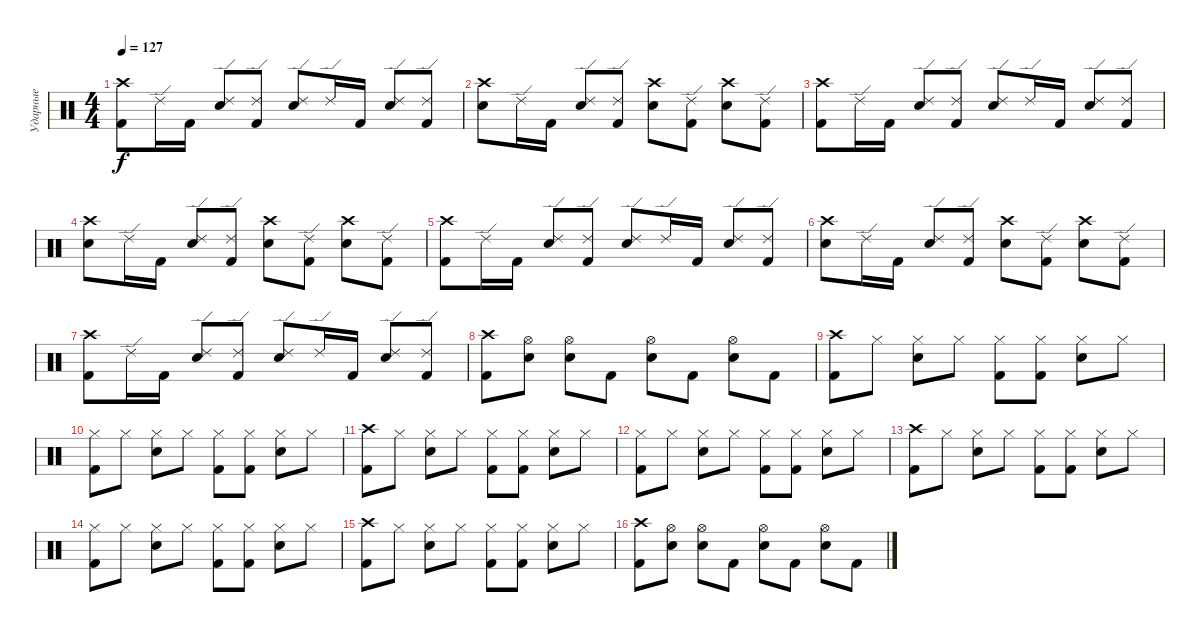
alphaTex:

\track ("Ударные" "Ударные") {instrument percussion}
\staff {score}
\articulation defaults
\ts (4 4)
\tempo 127
\clef neutral
\ks c
("Kick (hit) 2" "Crash high (hit)").8{dy f} "Ride (edge) 2".16 "Kick (hit) 2".16 ("Electric Snare (hit)" "Ride (edge) 2").8 ("Kick (hit) 2" "Ride (edge) 2").8 ("Electric Snare (hit)" "Ride (edge) 2").8 "Ride (edge) 2".16 "Kick (hit) 2".16 ("Electric Snare (hit)" "Ride (edge) 2").8 ("Kick (hit) 2" "Ride (edge) 2").8 |
("Electric Snare (hit)" "Crash high (hit)").8 "Ride (edge) 2".16 "Kick (hit) 2".16 ("Electric Snare (hit)" "Ride (edge) 2").8 ("Kick (hit) 2" "Ride (edge) 2").8 ("Electric Snare (hit)" "Crash high (hit)").8 ("Kick (hit) 2" "Ride (edge) 2").8 ("Electric Snare (hit)" "Crash high (hit)").8 ("Kick (hit) 2" "Ride (edge) 2").8 |
("Kick (hit) 2" "Crash high (hit)").8 "Ride (edge) 2".16 "Kick (hit) 2".16 ("Electric Snare (hit)" "Ride (edge) 2").8 ("Kick (hit) 2" "Ride (edge) 2").8 ("Electric Snare (hit)" "Ride (edge) 2").8 "Ride (edge) 2".16 "Kick (hit) 2".16 ("Electric Snare (hit)" "Ride (edge) 2").8 ("Kick (hit) 2" "Ride (edge) 2").8 |
("Electric Snare (hit)" "Crash high (hit)").8 "Ride (edge) 2".16 "Kick (hit) 2".16 ("Electric Snare (hit)" "Ride (edge) 2").8 ("Kick (hit) 2" "Ride (edge) 2").8 ("Electric Snare (hit)" "Crash high (hit)").8 ("Kick (hit) 2" "Ride (edge) 2").8 ("Electric Snare (hit)" "Crash high (hit)").8 ("Kick (hit) 2" "Ride (edge) 2").8 |
("Kick (hit) 2" "Crash high (hit)").8 "Ride (edge) 2".16 "Kick (hit) 2".16 ("Electric Snare (hit)" "Ride (edge) 2").8 ("Kick (hit) 2" "Ride (edge) 2").8 ("Electric Snare (hit)" "Ride (edge) 2").8 "Ride (edge) 2".16 "Kick (hit) 2".16 ("Electric Snare (hit)" "Ride (edge) 2").8 ("Kick (hit) 2" "Ride (edge) 2").8 |
("Electric Snare (hit)" "Crash high (hit)").8 "Ride (edge) 2".16 "Kick (hit) 2".16 ("Electric Snare (hit)" "Ride (edge) 2").8 ("Kick (hit) 2" "Ride (edge) 2").8 ("Electric Snare (hit)" "Crash high (hit)").8 ("Kick (hit) 2" "Ride (edge) 2").8 ("Electric Snare (hit)" "Crash high (hit)").8 ("Kick (hit) 2" "Ride (edge) 2").8 |
("Kick (hit) 2" "Crash high (hit)").8 "Ride (edge) 2".16 "Kick (hit) 2".16 ("Electric Snare (hit)" "Ride (edge) 2").8 ("Kick (hit) 2" "Ride (edge) 2").8 ("Electric Snare (hit)" "Ride (edge) 2").8 "Ride (edge) 2".16 "Kick (hit) 2".16 ("Electric Snare (hit)" "Ride (edge) 2").8 ("Kick (hit) 2" "Ride (edge) 2").8 |
("Kick (hit) 2" "Crash high (hit)").8 ("Electric Snare (hit)" "Hi-Hat (open)").8 ("Electric Snare (hit)" "Hi-Hat (open)").8 "Kick (hit) 2".8 ("Electric Snare (hit)" "Hi-Hat (open)").8 "Kick (hit) 2".8 ("Electric Snare (hit)" "Hi-Hat (open)").8 "Kick (hit) 2".8 |
("Kick (hit) 2" "Crash high (hit)").8 "Hi-Hat (closed)".8 ("Electric Snare (hit)" "Hi-Hat (closed)").8 "Hi-Hat (closed)".8 ("Kick (hit) 2" "Hi-Hat (closed)").8 ("Kick (hit) 2" "Hi-Hat (closed)").8 ("Electric Snare (hit)" "Hi-Hat (closed)").8 "Hi-Hat (closed)".8 |
("Kick (hit) 2" "Hi-Hat (closed)").8 "Hi-Hat (closed)".8 ("Electric Snare (hit)" "Hi-Hat (closed)").8 "Hi-Hat (closed)".8 ("Kick (hit) 2" "Hi-Hat (closed)").8 ("Kick (hit) 2" "Hi-Hat (closed)").8 ("Electric Snare (hit)" "Hi-Hat (closed)").8 "Hi-Hat (closed)".8 |
("Kick (hit) 2" "Crash high (hit)").8 "Hi-Hat (closed)".8 ("Electric Snare (hit)" "Hi-Hat (closed)").8 "Hi-Hat (closed)".8 ("Kick (hit) 2" "Hi-Hat (closed)").8 ("Kick (hit) 2" "Hi-Hat (closed)").8 ("Electric Snare (hit)" "Hi-Hat (closed)").8 "Hi-Hat (closed)".8 |
("Kick (hit) 2" "Hi-Hat (closed)").8 "Hi-Hat (closed)".8 ("Electric Snare (hit)" "Hi-Hat (closed)").8 "Hi-Hat (closed)".8 ("Kick (hit) 2" "Hi-Hat (closed)").8 ("Kick (hit) 2" "Hi-Hat (closed)").8 ("Electric Snare (hit)" "Hi-Hat (closed)").8 "Hi-Hat (closed)".8 |
("Kick (hit) 2" "Crash high (hit)").8 "Hi-Hat (closed)".8 ("Electric Snare (hit)" "Hi-Hat (closed)").8 "Hi-Hat (closed)".8 ("Kick (hit) 2" "Hi-Hat (closed)").8 ("Kick (hit) 2" "Hi-Hat (closed)").8 ("Electric Snare (hit)" "Hi-Hat (closed)").8 "Hi-Hat (closed)".8 |
("Kick (hit) 2" "Hi-Hat (closed)").8 "Hi-Hat (closed)".8 ("Electric Snare (hit)" "Hi-Hat (closed)").8 "Hi-Hat (closed)".8 ("Kick (hit) 2" "Hi-Hat (closed)").8 ("Kick (hit) 2" "Hi-Hat (closed)").8 ("Electric Snare (hit)" "Hi-Hat (closed)").8 "Hi-Hat (closed)".8 |
("Kick (hit) 2" "Crash high (hit)").8 "Hi-Hat (closed)".8 ("Electric Snare (hit)" "Hi-Hat (closed)").8 "Hi-Hat (closed)".8 ("Kick (hit) 2" "Hi-Hat (closed)").8 ("Kick (hit) 2" "Hi-Hat (closed)").8 ("Electric Snare (hit)" "Hi-Hat (closed)").8 "Hi-Hat (closed)".8 |
("Kick (hit) 2" "Crash high (hit)").8 ("Electric Snare (hit)" "Hi-Hat (open)").8 ("Electric Snare (hit)" "Hi-Hat (open)").8 "Kick (hit) 2".8 ("Electric Snare (hit)" "Hi-Hat (open)").8 "Kick (hit) 2".8 ("Electric Snare (hit)" "Hi-Hat (open)").8 "Kick (hit) 2".8
